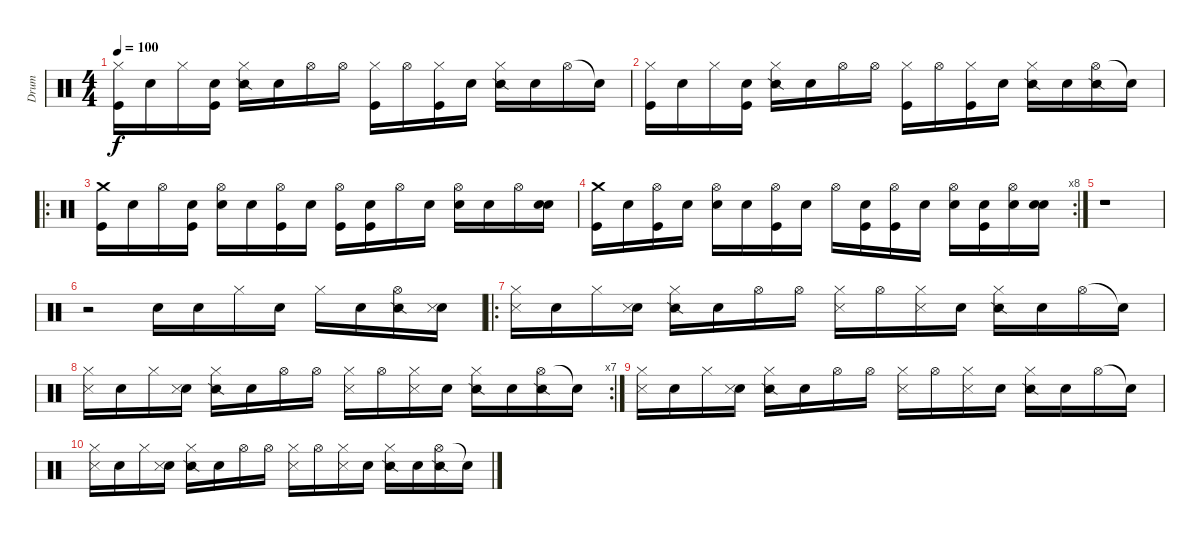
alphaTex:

\track ("Drum" "Drum") {instrument percussion}
\staff {score}
\articulation defaults
\ts (4 4)
\tempo 100
\clef neutral
\ks c
("Hi-Hat (closed)" "Kick (hit)").16{dy f} "Snare (hit)".16 "Hi-Hat (closed)".16 ("Snare (hit)" "Kick (hit)").16 ("Hi-Hat (closed)" "Snare (side stick) 2").16 "Snare (hit)".16 "Hi-Hat (open)".16 "Hi-Hat (open)".16 ("Hi-Hat (closed)" "Kick (hit)").16 "Hi-Hat (open)".16 ("Hi-Hat (closed)" "Kick (hit)").16 "Snare (hit)".16 ("Hi-Hat (closed)" "Snare (side stick) 2").16 "Snare (hit)".16 "Hi-Hat (open)".16 "Snare (hit)"{t}.16 |
("Hi-Hat (closed)" "Kick (hit)").16 "Snare (hit)".16 "Hi-Hat (closed)".16 ("Snare (hit)" "Kick (hit)").16 ("Hi-Hat (closed)" "Snare (side stick) 2").16 "Snare (hit)".16 "Hi-Hat (open)".16 "Hi-Hat (open)".16 ("Hi-Hat (closed)" "Kick (hit)").16 "Hi-Hat (open)".16 ("Hi-Hat (closed)" "Kick (hit)").16 "Snare (hit)".16 ("Hi-Hat (closed)" "Snare (side stick) 2").16 "Snare (hit)".16 ("Hi-Hat (open)" "Snare (side stick) 2").16 "Snare (hit)"{t}.16 |
\ro
("Crash medium (hit)" "Kick (hit)").16 "Snare (hit)".16 "Hi-Hat (open)".16 ("Snare (hit)" "Kick (hit)").16 ("Hi-Hat (open)" "Snare (hit) 2").16 "Snare (hit)".16 ("Hi-Hat (open)" "Kick (hit)").16 "Snare (hit)".16 ("Hi-Hat (open)" "Kick (hit)").16 ("Snare (hit)" "Kick (hit)").16 "Hi-Hat (open)".16 "Snare (hit)".16 ("Hi-Hat (open)" "Snare (hit) 2").16 "Snare (hit)".16 "Hi-Hat (open)".16 ("Snare (hit)" "Snare (hit) 2").16 |
\rc 8
("Crash medium (hit)" "Kick (hit)").16 "Snare (hit)".16 ("Hi-Hat (open)" "Kick (hit)").16 "Snare (hit)".16 ("Hi-Hat (open)" "Snare (hit) 2").16 "Snare (hit)".16 ("Hi-Hat (open)" "Kick (hit)").16 "Snare (hit)".16 "Hi-Hat (open)".16 ("Snare (hit)" "Kick (hit)").16 ("Hi-Hat (open)" "Kick (hit)").16 "Snare (hit)".16 ("Hi-Hat (open)" "Snare (hit) 2").16 ("Snare (hit)" "Kick (hit)").16 ("Hi-Hat (open)" "Snare (hit) 2").16 ("Snare (hit)" "Snare (hit) 2").16 |
r.1 |
r.2 "Snare (hit)".16{volume 13} "Snare (hit)".16 "Hi-Hat (closed)".16 "Snare (hit)".16 "Hi-Hat (closed)".16 "Snare (hit)".16 ("Hi-Hat (open)" "Snare (side stick) 2").16 ("Snare (hit)" "Metronome (hit)").16 |
\ro
("Hi-Hat (closed)" "Metronome (hit)").16 "Snare (hit)".16 "Hi-Hat (closed)".16 ("Snare (hit)" "Metronome (hit)").16 ("Hi-Hat (closed)" "Snare (side stick) 2").16 "Snare (hit)".16 "Hi-Hat (open)".16 "Hi-Hat (open)".16 ("Hi-Hat (closed)" "Metronome (hit)").16 "Hi-Hat (open)".16 ("Hi-Hat (closed)" "Metronome (hit)").16 "Snare (hit)".16 ("Hi-Hat (closed)" "Snare (side stick) 2").16 "Snare (hit)".16 "Hi-Hat (open)".16 "Snare (hit)"{t}.16 |
\rc 7
("Hi-Hat (closed)" "Metronome (hit)").16 "Snare (hit)".16 "Hi-Hat (closed)".16 ("Snare (hit)" "Metronome (hit)").16 ("Hi-Hat (closed)" "Snare (side stick) 2").16 "Snare (hit)".16 "Hi-Hat (open)".16 "Hi-Hat (open)".16 ("Hi-Hat (closed)" "Metronome (hit)").16 "Hi-Hat (open)".16 ("Hi-Hat (closed)" "Metronome (hit)").16 "Snare (hit)".16 ("Hi-Hat (closed)" "Snare (side stick) 2").16 "Snare (hit)".16 ("Hi-Hat (open)" "Snare (side stick) 2").16 "Snare (hit)"{t}.16 |
("Hi-Hat (closed)" "Metronome (hit)").16{volume 2} "Snare (hit)".16 "Hi-Hat (closed)".16 ("Snare (hit)" "Metronome (hit)").16 ("Hi-Hat (closed)" "Snare (side stick) 2").16 "Snare (hit)".16 "Hi-Hat (open)".16 "Hi-Hat (open)".16 ("Hi-Hat (closed)" "Metronome (hit)").16 "Hi-Hat (open)".16 ("Hi-Hat (closed)" "Metronome (hit)").16 "Snare (hit)".16 ("Hi-Hat (closed)" "Snare (side stick) 2").16 "Snare (hit)".16 "Hi-Hat (open)".16 "Snare (hit)"{t}.16 |
("Hi-Hat (closed)" "Metronome (hit)").16 "Snare (hit)".16 "Hi-Hat (closed)".16 ("Snare (hit)" "Metronome (hit)").16 ("Hi-Hat (closed)" "Snare (side stick) 2").16 "Snare (hit)".16 "Hi-Hat (open)".16 "Hi-Hat (open)".16 ("Hi-Hat (closed)" "Metronome (hit)").16 "Hi-Hat (open)".16 ("Hi-Hat (closed)" "Metronome (hit)").16 "Snare (hit)".16 ("Hi-Hat (closed)" "Snare (side stick) 2").16 "Snare (hit)".16 ("Hi-Hat (open)" "Snare (side stick) 2").16 "Snare (hit)"{t}.16
